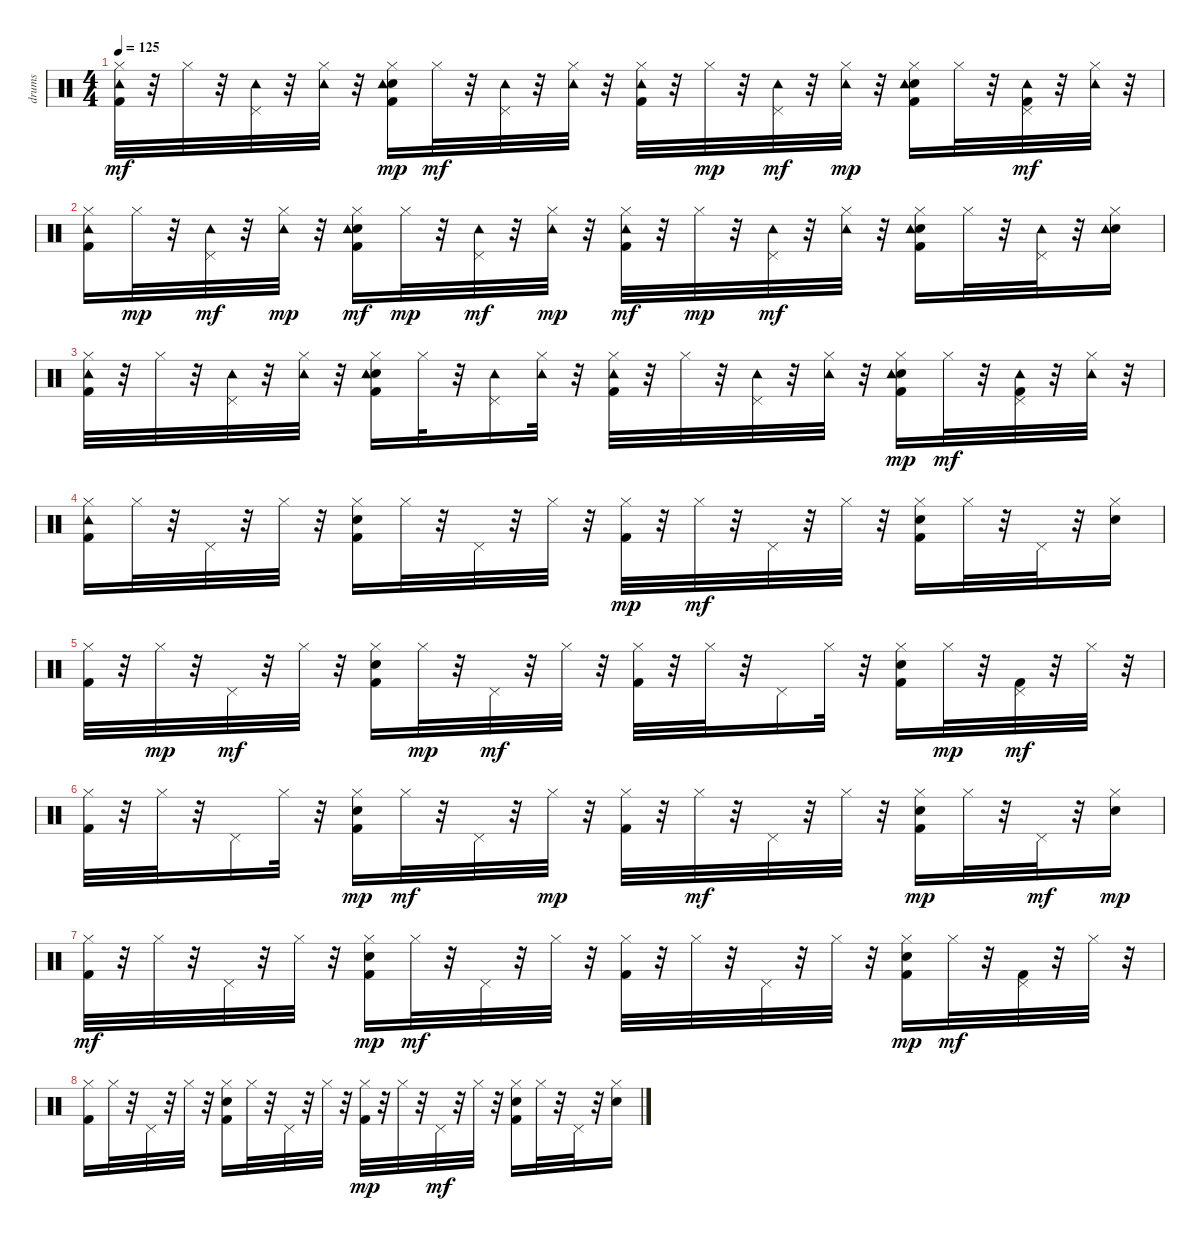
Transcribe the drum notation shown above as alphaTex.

\track ("drums   " "drums   ") {instrument percussion}
\staff {score}
\articulation defaults
\ts (4 4)
\tempo 125
\clef neutral
\ks c
("Kick (hit) 2" "Hi-Hat (closed)" "Tambourine (hit)").32{dy mf} r.32 "Hi-Hat (closed)".32 r.32 ("Pedal Hi-Hat (hit)" "Tambourine (hit)").32 r.32 ("Hi-Hat (closed)" "Tambourine (hit)").32 r.32 ("Kick (hit) 2" "Snare (hit) 2" "Hi-Hat (closed)" "Tambourine (hit)").16{dy mp} "Hi-Hat (closed)".32{dy mf} r.32 ("Pedal Hi-Hat (hit)" "Tambourine (hit)").32 r.32 ("Hi-Hat (closed)" "Tambourine (hit)").32 r.32 ("Kick (hit) 2" "Hi-Hat (closed)" "Tambourine (hit)").32 r.32 "Hi-Hat (closed)".32{dy mp} r.32 ("Pedal Hi-Hat (hit)" "Tambourine (hit)").32{dy mf} r.32 ("Hi-Hat (closed)" "Tambourine (hit)").32{dy mp} r.32 ("Kick (hit) 2" "Snare (hit) 2" "Hi-Hat (closed)" "Tambourine (hit)").16 "Hi-Hat (closed)".32 r.32 ("Kick (hit) 2" "Pedal Hi-Hat (hit)" "Tambourine (hit)").32{dy mf} r.32 ("Hi-Hat (closed)" "Tambourine (hit)").32 r.32 |
("Kick (hit) 2" "Hi-Hat (closed)" "Tambourine (hit)").16 "Hi-Hat (closed)".32{dy mp} r.32 ("Pedal Hi-Hat (hit)" "Tambourine (hit)").32{dy mf} r.32 ("Hi-Hat (closed)" "Tambourine (hit)").32{dy mp} r.32 ("Kick (hit) 2" "Snare (hit) 2" "Hi-Hat (closed)" "Tambourine (hit)").16{dy mf} "Hi-Hat (closed)".32{dy mp} r.32 ("Pedal Hi-Hat (hit)" "Tambourine (hit)").32{dy mf} r.32 ("Hi-Hat (closed)" "Tambourine (hit)").32{dy mp} r.32 ("Kick (hit) 2" "Hi-Hat (closed)" "Tambourine (hit)").32{dy mf} r.32 "Hi-Hat (closed)".32{dy mp} r.32 ("Pedal Hi-Hat (hit)" "Tambourine (hit)").32{dy mf} r.32 ("Hi-Hat (closed)" "Tambourine (hit)").32 r.32 ("Kick (hit) 2" "Snare (hit) 2" "Hi-Hat (closed)" "Tambourine (hit)").16 "Hi-Hat (closed)".32 r.32 ("Pedal Hi-Hat (hit)" "Tambourine (hit)").32 r.32 ("Snare (hit) 2" "Hi-Hat (closed)" "Tambourine (hit)").16 |
("Kick (hit) 2" "Hi-Hat (closed)" "Tambourine (hit)").32 r.32 "Hi-Hat (closed)".32 r.32 ("Pedal Hi-Hat (hit)" "Tambourine (hit)").32 r.32 ("Hi-Hat (closed)" "Tambourine (hit)").32 r.32 ("Kick (hit) 2" "Snare (hit) 2" "Hi-Hat (closed)" "Tambourine (hit)").16 "Hi-Hat (closed)".32 r.32 ("Pedal Hi-Hat (hit)" "Tambourine (hit)").16 ("Hi-Hat (closed)" "Tambourine (hit)").32 r.32 ("Kick (hit) 2" "Hi-Hat (closed)" "Tambourine (hit)").32 r.32 "Hi-Hat (closed)".32 r.32 ("Pedal Hi-Hat (hit)" "Tambourine (hit)").32 r.32 ("Hi-Hat (closed)" "Tambourine (hit)").32 r.32 ("Kick (hit) 2" "Snare (hit) 2" "Hi-Hat (closed)" "Tambourine (hit)").16{dy mp} "Hi-Hat (closed)".32{dy mf} r.32 ("Kick (hit) 2" "Pedal Hi-Hat (hit)" "Tambourine (hit)").32 r.32 ("Hi-Hat (closed)" "Tambourine (hit)").32 r.32 |
("Kick (hit) 2" "Hi-Hat (closed)" "Tambourine (hit)").16 "Hi-Hat (closed)".32 r.32 "Pedal Hi-Hat (hit)".32 r.32 "Hi-Hat (closed)".32 r.32 ("Kick (hit) 2" "Snare (hit) 2" "Hi-Hat (closed)").16 "Hi-Hat (closed)".32 r.32 "Pedal Hi-Hat (hit)".32 r.32 "Hi-Hat (closed)".32 r.32 ("Kick (hit) 2" "Hi-Hat (closed)").32{dy mp} r.32 "Hi-Hat (closed)".32{dy mf} r.32 "Pedal Hi-Hat (hit)".32 r.32 "Hi-Hat (closed)".32 r.32 ("Kick (hit) 2" "Snare (hit) 2" "Hi-Hat (closed)").16 "Hi-Hat (closed)".32 r.32 "Pedal Hi-Hat (hit)".32 r.32 ("Snare (hit) 2" "Hi-Hat (closed)").16 |
("Kick (hit) 2" "Hi-Hat (closed)").32 r.32 "Hi-Hat (closed)".32{dy mp} r.32 "Pedal Hi-Hat (hit)".32{dy mf} r.32 "Hi-Hat (closed)".32 r.32 ("Kick (hit) 2" "Snare (hit) 2" "Hi-Hat (closed)").16 "Hi-Hat (closed)".32{dy mp} r.32 "Pedal Hi-Hat (hit)".32{dy mf} r.32 "Hi-Hat (closed)".32 r.32 ("Kick (hit) 2" "Hi-Hat (closed)").32 r.32 "Hi-Hat (closed)".32 r.32 "Pedal Hi-Hat (hit)".16 "Hi-Hat (closed)".32 r.32 ("Kick (hit) 2" "Snare (hit) 2" "Hi-Hat (closed)").16 "Hi-Hat (closed)".32{dy mp} r.32 ("Kick (hit) 2" "Pedal Hi-Hat (hit)").32{dy mf} r.32 "Hi-Hat (closed)".32 r.32 |
("Kick (hit) 2" "Hi-Hat (closed)").32 r.32 "Hi-Hat (closed)".32 r.32 "Pedal Hi-Hat (hit)".16 "Hi-Hat (closed)".32 r.32 ("Kick (hit) 2" "Snare (hit) 2" "Hi-Hat (closed)").16{dy mp} "Hi-Hat (closed)".32{dy mf} r.32 "Pedal Hi-Hat (hit)".32 r.32 "Hi-Hat (closed)".32{dy mp} r.32 ("Kick (hit) 2" "Hi-Hat (closed)").32 r.32 "Hi-Hat (closed)".32{dy mf} r.32 "Pedal Hi-Hat (hit)".32 r.32 "Hi-Hat (closed)".32 r.32 ("Kick (hit) 2" "Snare (hit) 2" "Hi-Hat (closed)").16{dy mp} "Hi-Hat (closed)".32 r.32 "Pedal Hi-Hat (hit)".32{dy mf} r.32 ("Snare (hit) 2" "Hi-Hat (closed)").16{dy mp} |
("Kick (hit) 2" "Hi-Hat (closed)").32{dy mf} r.32 "Hi-Hat (closed)".32 r.32 "Pedal Hi-Hat (hit)".32 r.32 "Hi-Hat (closed)".32 r.32 ("Kick (hit) 2" "Snare (hit) 2" "Hi-Hat (closed)").16{dy mp} "Hi-Hat (closed)".32{dy mf} r.32 "Pedal Hi-Hat (hit)".32 r.32 "Hi-Hat (closed)".32 r.32 ("Kick (hit) 2" "Hi-Hat (closed)").32 r.32 "Hi-Hat (closed)".32 r.32 "Pedal Hi-Hat (hit)".32 r.32 "Hi-Hat (closed)".32 r.32 ("Kick (hit) 2" "Snare (hit) 2" "Hi-Hat (closed)").16{dy mp} "Hi-Hat (closed)".32{dy mf} r.32 ("Kick (hit) 2" "Pedal Hi-Hat (hit)").32 r.32 "Hi-Hat (closed)".32 r.32 |
("Kick (hit) 2" "Hi-Hat (closed)").16 "Hi-Hat (closed)".32 r.32 "Pedal Hi-Hat (hit)".32 r.32 "Hi-Hat (closed)".32 r.32 ("Kick (hit) 2" "Snare (hit) 2" "Hi-Hat (closed)").16 "Hi-Hat (closed)".32 r.32 "Pedal Hi-Hat (hit)".32 r.32 "Hi-Hat (closed)".32 r.32 ("Kick (hit) 2" "Hi-Hat (closed)").32{dy mp} r.32 "Hi-Hat (closed)".32 r.32 "Pedal Hi-Hat (hit)".32{dy mf} r.32 "Hi-Hat (closed)".32 r.32 ("Kick (hit) 2" "Snare (hit) 2" "Hi-Hat (closed)").16 "Hi-Hat (closed)".32 r.32 "Pedal Hi-Hat (hit)".32 r.32 ("Snare (hit) 2" "Hi-Hat (closed)").16
